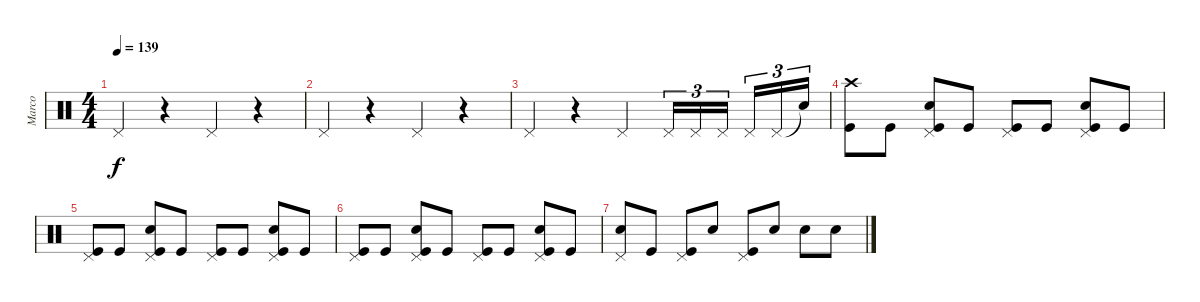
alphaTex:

\track ("Marco" "Marco") {instrument percussion}
\staff {score}
\articulation defaults
\ts (4 4)
\tempo 139
\clef neutral
\ks c "Pedal Hi-Hat (hit)".4{dy f}
r.4 "Pedal Hi-Hat (hit)".4 r.4 |
"Pedal Hi-Hat (hit)".4 r.4 "Pedal Hi-Hat (hit)".4 r.4 |
"Pedal Hi-Hat (hit)".4 r.4 "Pedal Hi-Hat (hit)".4 "Pedal Hi-Hat (hit)".16{tu (3 2)} "Pedal Hi-Hat (hit)".16{tu (3 2)} "Pedal Hi-Hat (hit)".16{tu (3 2)} "Pedal Hi-Hat (hit)".16{tu (3 2)} "Pedal Hi-Hat (hit)".16{tu (3 2)} "Snare (hit)"{t}.16{tu (3 2)} |
("Crash high (hit)" "Kick (hit)").8 "Kick (hit)".8 ("Pedal Hi-Hat (hit)" "Snare (hit) 2" "Kick (hit)").8 "Kick (hit)".8 ("Pedal Hi-Hat (hit)" "Kick (hit)").8 "Kick (hit)".8 ("Pedal Hi-Hat (hit)" "Snare (hit) 2" "Kick (hit)").8 "Kick (hit)".8 |
("Pedal Hi-Hat (hit)" "Kick (hit)").8 "Kick (hit)".8 ("Pedal Hi-Hat (hit)" "Snare (hit) 2" "Kick (hit)").8 "Kick (hit)".8 ("Pedal Hi-Hat (hit)" "Kick (hit)").8 "Kick (hit)".8 ("Pedal Hi-Hat (hit)" "Snare (hit) 2" "Kick (hit)").8 "Kick (hit)".8 |
("Pedal Hi-Hat (hit)" "Kick (hit)").8 "Kick (hit)".8 ("Pedal Hi-Hat (hit)" "Snare (hit) 2" "Kick (hit)").8 "Kick (hit)".8 ("Pedal Hi-Hat (hit)" "Kick (hit)").8 "Kick (hit)".8 ("Pedal Hi-Hat (hit)" "Snare (hit) 2" "Kick (hit)").8 "Kick (hit)".8 |
("Pedal Hi-Hat (hit)" "Snare (hit) 2").8 "Kick (hit)".8 ("Pedal Hi-Hat (hit)" "Kick (hit)").8 "Snare (hit) 2".8 ("Pedal Hi-Hat (hit)" "Kick (hit)").8 "Snare (hit) 2".8 "Snare (hit) 2".8 "Snare (hit) 2".8
